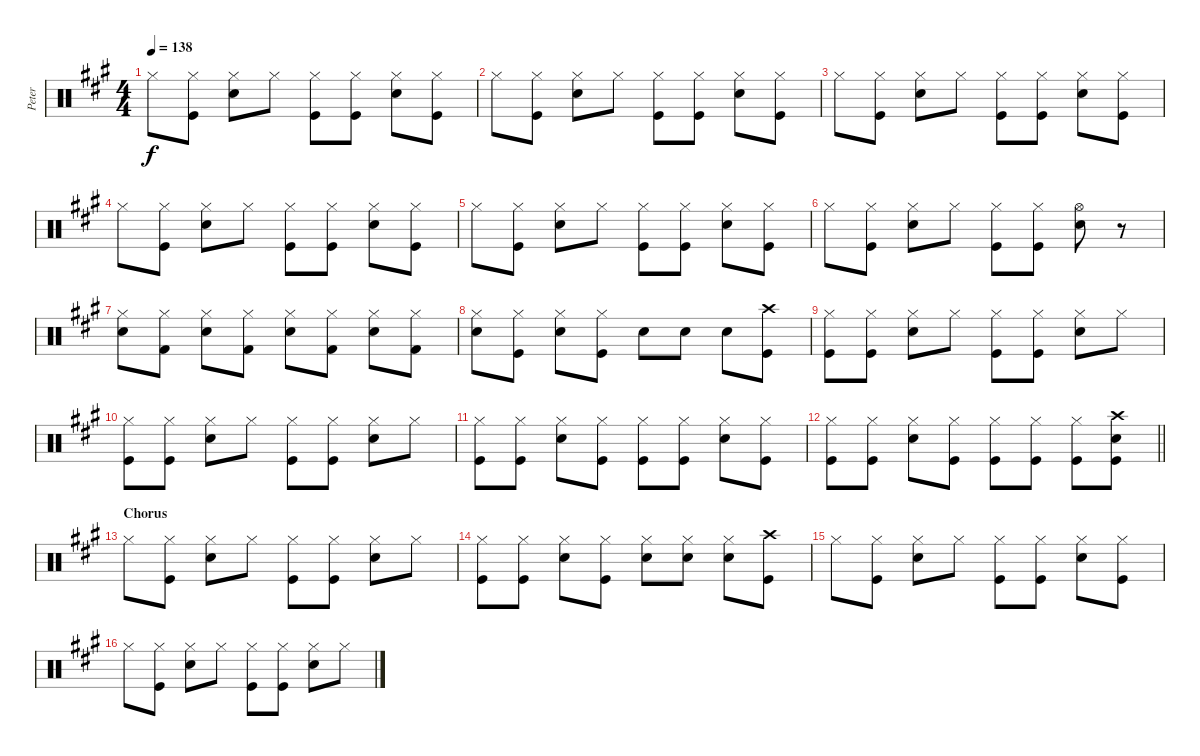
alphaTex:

\track ("Peter" "Peter") {instrument percussion}
\staff {score}
\articulation defaults
\ts (4 4)
\tempo 138
\clef neutral
\ks a "Hi-Hat (closed)".8{dy f}
("Hi-Hat (closed)" "Kick (hit)").8 ("Hi-Hat (closed)" "Snare (hit) 2").8 "Hi-Hat (closed)".8 ("Hi-Hat (closed)" "Kick (hit)").8 ("Hi-Hat (closed)" "Kick (hit)").8 ("Hi-Hat (closed)" "Snare (hit) 2").8 ("Hi-Hat (closed)" "Kick (hit)").8 |
"Hi-Hat (closed)".8 ("Hi-Hat (closed)" "Kick (hit)").8 ("Hi-Hat (closed)" "Snare (hit) 2").8 "Hi-Hat (closed)".8 ("Hi-Hat (closed)" "Kick (hit)").8 ("Hi-Hat (closed)" "Kick (hit)").8 ("Hi-Hat (closed)" "Snare (hit) 2").8 ("Hi-Hat (closed)" "Kick (hit)").8 |
"Hi-Hat (closed)".8 ("Hi-Hat (closed)" "Kick (hit)").8 ("Hi-Hat (closed)" "Snare (hit) 2").8 "Hi-Hat (closed)".8 ("Hi-Hat (closed)" "Kick (hit)").8 ("Hi-Hat (closed)" "Kick (hit)").8 ("Hi-Hat (closed)" "Snare (hit) 2").8 ("Hi-Hat (closed)" "Kick (hit)").8 |
"Hi-Hat (closed)".8 ("Hi-Hat (closed)" "Kick (hit)").8 ("Hi-Hat (closed)" "Snare (hit) 2").8 "Hi-Hat (closed)".8 ("Hi-Hat (closed)" "Kick (hit)").8 ("Hi-Hat (closed)" "Kick (hit)").8 ("Hi-Hat (closed)" "Snare (hit) 2").8 ("Hi-Hat (closed)" "Kick (hit)").8 |
"Hi-Hat (closed)".8 ("Hi-Hat (closed)" "Kick (hit)").8 ("Hi-Hat (closed)" "Snare (hit) 2").8 "Hi-Hat (closed)".8 ("Hi-Hat (closed)" "Kick (hit)").8 ("Hi-Hat (closed)" "Kick (hit)").8 ("Hi-Hat (closed)" "Snare (hit) 2").8 ("Hi-Hat (closed)" "Kick (hit)").8 |
"Hi-Hat (closed)".8 ("Hi-Hat (closed)" "Kick (hit)").8 ("Hi-Hat (closed)" "Snare (hit) 2").8 "Hi-Hat (closed)".8 ("Hi-Hat (closed)" "Kick (hit)").8 ("Hi-Hat (closed)" "Kick (hit)").8 ("Hi-Hat (open)" "Snare (hit) 2").8 r.8 |
("Hi-Hat (closed)" "Snare (hit) 2").8 ("Hi-Hat (closed)" "Kick (hit) 2").8 ("Hi-Hat (closed)" "Snare (hit) 2").8 ("Hi-Hat (closed)" "Kick (hit) 2").8 ("Hi-Hat (closed)" "Snare (hit) 2").8 ("Hi-Hat (closed)" "Kick (hit) 2").8 ("Hi-Hat (closed)" "Snare (hit) 2").8 ("Hi-Hat (closed)" "Kick (hit) 2").8 |
("Hi-Hat (closed)" "Snare (hit) 2").8 ("Hi-Hat (closed)" "Kick (hit)").8 ("Hi-Hat (closed)" "Snare (hit) 2").8 ("Hi-Hat (closed)" "Kick (hit)").8 "Snare (hit) 2".8 "Snare (hit) 2".8 "Snare (hit) 2".8 ("Crash high (hit)" "Kick (hit)").8 |
("Hi-Hat (closed)" "Kick (hit)").8 ("Hi-Hat (closed)" "Kick (hit)").8 ("Hi-Hat (closed)" "Snare (hit) 2").8 "Hi-Hat (closed)".8 ("Hi-Hat (closed)" "Kick (hit)").8 ("Hi-Hat (closed)" "Kick (hit)").8 ("Hi-Hat (closed)" "Snare (hit) 2").8 "Hi-Hat (closed)".8 |
("Hi-Hat (closed)" "Kick (hit)").8 ("Hi-Hat (closed)" "Kick (hit)").8 ("Hi-Hat (closed)" "Snare (hit) 2").8 "Hi-Hat (closed)".8 ("Hi-Hat (closed)" "Kick (hit)").8 ("Hi-Hat (closed)" "Kick (hit)").8 ("Hi-Hat (closed)" "Snare (hit) 2").8 "Hi-Hat (closed)".8 |
("Hi-Hat (closed)" "Kick (hit)").8 ("Hi-Hat (closed)" "Kick (hit)").8 ("Hi-Hat (closed)" "Snare (hit) 2").8 ("Hi-Hat (closed)" "Kick (hit)").8 ("Hi-Hat (closed)" "Kick (hit)").8 ("Hi-Hat (closed)" "Kick (hit)").8 ("Hi-Hat (closed)" "Snare (hit) 2").8 ("Hi-Hat (closed)" "Kick (hit)").8 |
\barLineRight lightlight
("Hi-Hat (closed)" "Kick (hit)").8 ("Hi-Hat (closed)" "Kick (hit)").8 ("Hi-Hat (closed)" "Snare (hit) 2").8 ("Hi-Hat (closed)" "Kick (hit)").8 ("Hi-Hat (closed)" "Kick (hit)").8 ("Hi-Hat (closed)" "Kick (hit)").8 ("Hi-Hat (closed)" "Kick (hit)").8 ("Crash high (hit)" "Snare (hit) 2" "Kick (hit)").8 |
\section ("" "Chorus")
"Hi-Hat (closed)".8 ("Hi-Hat (closed)" "Kick (hit)").8 ("Hi-Hat (closed)" "Snare (hit) 2").8 "Hi-Hat (closed)".8 ("Hi-Hat (closed)" "Kick (hit)").8 ("Hi-Hat (closed)" "Kick (hit)").8 ("Hi-Hat (closed)" "Snare (hit) 2").8 "Hi-Hat (closed)".8 |
("Hi-Hat (closed)" "Kick (hit)").8 ("Hi-Hat (closed)" "Kick (hit)").8 ("Hi-Hat (closed)" "Snare (hit) 2").8 ("Hi-Hat (closed)" "Kick (hit)").8 ("Hi-Hat (closed)" "Snare (hit) 2").8 ("Hi-Hat (closed)" "Snare (hit) 2").8 ("Hi-Hat (closed)" "Snare (hit) 2").8 ("Crash high (hit)" "Kick (hit)").8 |
"Hi-Hat (closed)".8 ("Hi-Hat (closed)" "Kick (hit)").8 ("Hi-Hat (closed)" "Snare (hit) 2").8 "Hi-Hat (closed)".8 ("Hi-Hat (closed)" "Kick (hit)").8 ("Hi-Hat (closed)" "Kick (hit)").8 ("Hi-Hat (closed)" "Snare (hit) 2").8 ("Hi-Hat (closed)" "Kick (hit)").8 |
"Hi-Hat (closed)".8 ("Hi-Hat (closed)" "Kick (hit)").8 ("Hi-Hat (closed)" "Snare (hit) 2").8 "Hi-Hat (closed)".8 ("Hi-Hat (closed)" "Kick (hit)").8 ("Hi-Hat (closed)" "Kick (hit)").8 ("Hi-Hat (closed)" "Snare (hit) 2").8 "Hi-Hat (closed)".8
